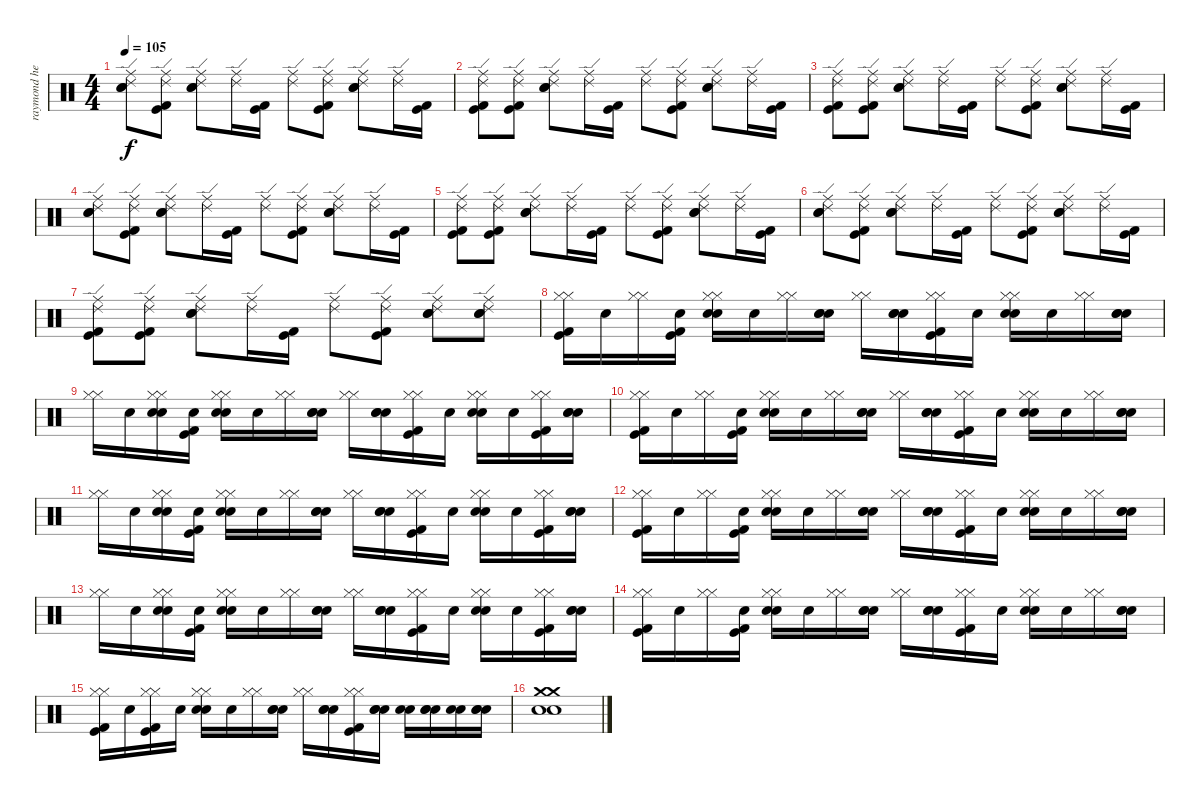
\track ("raymond herrea" "raymond he") {instrument percussion}
\staff {score}
\articulation defaults
\ts (4 4)
\tempo 105
\clef neutral
\ks c
("Ride (middle)" "Ride (edge) 2" "Snare (hit)" "Snare (hit)").8{dy f} ("Ride (middle)" "Ride (edge) 2" "Kick (hit)" "Kick (hit) 2").8 ("Ride (middle)" "Ride (edge) 2" "Snare (hit) 2" "Electric Snare (hit)").8 ("Ride (middle)" "Ride (edge) 2").16 ("Kick (hit)" "Kick (hit) 2").16 ("Ride (middle)" "Ride (edge) 2").8 ("Ride (middle)" "Ride (edge) 2" "Kick (hit)" "Kick (hit) 2").8 ("Ride (middle)" "Ride (edge) 2" "Snare (hit) 2" "Electric Snare (hit)").8 ("Ride (middle)" "Ride (edge) 2").16 ("Kick (hit)" "Kick (hit) 2").16 |
("Ride (middle)" "Ride (edge) 2" "Kick (hit)" "Kick (hit) 2").8 ("Ride (middle)" "Ride (edge) 2" "Kick (hit)" "Kick (hit) 2").8 ("Ride (middle)" "Ride (edge) 2" "Snare (hit) 2" "Electric Snare (hit)").8 ("Ride (middle)" "Ride (edge) 2").16 ("Kick (hit)" "Kick (hit) 2").16 ("Ride (middle)" "Ride (edge) 2").8 ("Ride (middle)" "Ride (edge) 2" "Kick (hit)" "Kick (hit) 2").8 ("Ride (middle)" "Ride (edge) 2" "Snare (hit) 2" "Electric Snare (hit)").8 ("Ride (middle)" "Ride (edge) 2").16 ("Kick (hit)" "Kick (hit) 2").16 |
("Ride (middle)" "Ride (edge) 2" "Kick (hit)" "Kick (hit) 2").8 ("Ride (middle)" "Ride (edge) 2" "Kick (hit)" "Kick (hit) 2").8 ("Ride (middle)" "Ride (edge) 2" "Snare (hit) 2" "Electric Snare (hit)").8 ("Ride (middle)" "Ride (edge) 2").16 ("Kick (hit)" "Kick (hit) 2").16 ("Ride (middle)" "Ride (edge) 2").8 ("Ride (middle)" "Ride (edge) 2" "Kick (hit)" "Kick (hit) 2").8 ("Ride (middle)" "Ride (edge) 2" "Snare (hit) 2" "Electric Snare (hit)").8 ("Ride (middle)" "Ride (edge) 2").16 ("Kick (hit)" "Kick (hit) 2").16 |
("Ride (middle)" "Ride (edge) 2" "Snare (hit)" "Snare (hit)").8 ("Ride (middle)" "Ride (edge) 2" "Kick (hit)" "Kick (hit) 2").8 ("Ride (middle)" "Ride (edge) 2" "Snare (hit) 2" "Electric Snare (hit)").8 ("Ride (middle)" "Ride (edge) 2").16 ("Kick (hit)" "Kick (hit) 2").16 ("Ride (middle)" "Ride (edge) 2").8 ("Ride (middle)" "Ride (edge) 2" "Kick (hit)" "Kick (hit) 2").8 ("Ride (middle)" "Ride (edge) 2" "Snare (hit) 2" "Electric Snare (hit)").8 ("Ride (middle)" "Ride (edge) 2").16 ("Kick (hit)" "Kick (hit) 2").16 |
("Ride (middle)" "Ride (edge) 2" "Kick (hit)" "Kick (hit) 2").8 ("Ride (middle)" "Ride (edge) 2" "Kick (hit)" "Kick (hit) 2").8 ("Ride (middle)" "Ride (edge) 2" "Snare (hit) 2" "Electric Snare (hit)").8 ("Ride (middle)" "Ride (edge) 2").16 ("Kick (hit)" "Kick (hit) 2").16 ("Ride (middle)" "Ride (edge) 2").8 ("Ride (middle)" "Ride (edge) 2" "Kick (hit)" "Kick (hit) 2").8 ("Ride (middle)" "Ride (edge) 2" "Snare (hit) 2" "Electric Snare (hit)").8 ("Ride (middle)" "Ride (edge) 2").16 ("Kick (hit)" "Kick (hit) 2").16 |
("Ride (middle)" "Ride (edge) 2" "Snare (hit)" "Snare (hit)").8 ("Ride (middle)" "Ride (edge) 2" "Kick (hit)" "Kick (hit) 2").8 ("Ride (middle)" "Ride (edge) 2" "Snare (hit) 2" "Electric Snare (hit)").8 ("Ride (middle)" "Ride (edge) 2").16 ("Kick (hit)" "Kick (hit) 2").16 ("Ride (middle)" "Ride (edge) 2").8 ("Ride (middle)" "Ride (edge) 2" "Kick (hit)" "Kick (hit) 2").8 ("Ride (middle)" "Ride (edge) 2" "Snare (hit) 2" "Electric Snare (hit)").8 ("Ride (middle)" "Ride (edge) 2").16 ("Kick (hit)" "Kick (hit) 2").16 |
("Ride (middle)" "Ride (edge) 2" "Kick (hit)" "Kick (hit) 2").8 ("Ride (middle)" "Ride (edge) 2" "Kick (hit)" "Kick (hit) 2").8 ("Ride (middle)" "Ride (edge) 2" "Snare (hit) 2" "Electric Snare (hit)").8 ("Ride (middle)" "Ride (edge) 2").16 ("Kick (hit)" "Kick (hit) 2").16 ("Ride (middle)" "Ride (edge) 2").8 ("Ride (middle)" "Ride (edge) 2" "Kick (hit)" "Kick (hit) 2").8 ("Ride (middle)" "Ride (edge) 2" "Snare (hit) 2" "Electric Snare (hit)").8 ("Ride (middle)" "Ride (edge) 2" "Snare (hit) 2" "Electric Snare (hit)").8 |
("Hi-Hat (closed)" "Hi-Hat (closed)" "Kick (hit)" "Kick (hit) 2").16 "Snare (hit)".16 ("Hi-Hat (closed)" "Hi-Hat (closed)").16 ("Snare (hit)" "Kick (hit)" "Kick (hit) 2").16 ("Hi-Hat (closed)" "Hi-Hat (closed)" "Snare (hit) 2" "Electric Snare (hit)").16 "Snare (hit)".16 ("Hi-Hat (closed)" "Hi-Hat (closed)").16 ("Snare (hit)" "Snare (hit) 2" "Electric Snare (hit)").16 ("Hi-Hat (closed)" "Hi-Hat (closed)").16 ("Snare (hit)" "Snare (hit) 2" "Electric Snare (hit)").16 ("Hi-Hat (closed)" "Hi-Hat (closed)" "Kick (hit)" "Kick (hit) 2").16 "Snare (hit)".16 ("Hi-Hat (closed)" "Hi-Hat (closed)" "Snare (hit) 2" "Electric Snare (hit)").16 "Snare (hit)".16 ("Hi-Hat (closed)" "Hi-Hat (closed)").16 ("Snare (hit)" "Snare (hit) 2" "Electric Snare (hit)").16 |
("Hi-Hat (closed)" "Hi-Hat (closed)").16 "Snare (hit)".16 ("Hi-Hat (closed)" "Hi-Hat (closed)" "Electric Snare (hit)" "Snare (hit) 2").16 ("Snare (hit)" "Kick (hit)" "Kick (hit) 2").16 ("Hi-Hat (closed)" "Hi-Hat (closed)" "Snare (hit) 2" "Electric Snare (hit)").16 "Snare (hit)".16 ("Hi-Hat (closed)" "Hi-Hat (closed)").16 ("Snare (hit)" "Snare (hit) 2" "Electric Snare (hit)").16 ("Hi-Hat (closed)" "Hi-Hat (closed)").16 ("Snare (hit)" "Snare (hit) 2" "Electric Snare (hit)").16 ("Hi-Hat (closed)" "Hi-Hat (closed)" "Kick (hit)" "Kick (hit) 2").16 "Snare (hit)".16 ("Hi-Hat (closed)" "Hi-Hat (closed)" "Snare (hit) 2" "Electric Snare (hit)").16 "Snare (hit)".16 ("Hi-Hat (closed)" "Hi-Hat (closed)" "Kick (hit)" "Kick (hit) 2").16 ("Snare (hit)" "Snare (hit) 2" "Electric Snare (hit)").16 |
("Hi-Hat (closed)" "Hi-Hat (closed)" "Kick (hit)" "Kick (hit) 2").16 "Snare (hit)".16 ("Hi-Hat (closed)" "Hi-Hat (closed)").16 ("Snare (hit)" "Kick (hit)" "Kick (hit) 2").16 ("Hi-Hat (closed)" "Hi-Hat (closed)" "Snare (hit) 2" "Electric Snare (hit)").16 "Snare (hit)".16 ("Hi-Hat (closed)" "Hi-Hat (closed)").16 ("Snare (hit)" "Snare (hit) 2" "Electric Snare (hit)").16 ("Hi-Hat (closed)" "Hi-Hat (closed)").16 ("Snare (hit)" "Snare (hit) 2" "Electric Snare (hit)").16 ("Hi-Hat (closed)" "Hi-Hat (closed)" "Kick (hit)" "Kick (hit) 2").16 "Snare (hit)".16 ("Hi-Hat (closed)" "Hi-Hat (closed)" "Snare (hit) 2" "Electric Snare (hit)").16 "Snare (hit)".16 ("Hi-Hat (closed)" "Hi-Hat (closed)").16 ("Snare (hit)" "Snare (hit) 2" "Electric Snare (hit)").16 |
("Hi-Hat (closed)" "Hi-Hat (closed)").16 "Snare (hit)".16 ("Hi-Hat (closed)" "Hi-Hat (closed)" "Electric Snare (hit)" "Snare (hit) 2").16 ("Snare (hit)" "Kick (hit)" "Kick (hit) 2").16 ("Hi-Hat (closed)" "Hi-Hat (closed)" "Snare (hit) 2" "Electric Snare (hit)").16 "Snare (hit)".16 ("Hi-Hat (closed)" "Hi-Hat (closed)").16 ("Snare (hit)" "Snare (hit) 2" "Electric Snare (hit)").16 ("Hi-Hat (closed)" "Hi-Hat (closed)").16 ("Snare (hit)" "Snare (hit) 2" "Electric Snare (hit)").16 ("Hi-Hat (closed)" "Hi-Hat (closed)" "Kick (hit)" "Kick (hit) 2").16 "Snare (hit)".16 ("Hi-Hat (closed)" "Hi-Hat (closed)" "Snare (hit) 2" "Electric Snare (hit)").16 "Snare (hit)".16 ("Hi-Hat (closed)" "Hi-Hat (closed)" "Kick (hit)" "Kick (hit) 2").16 ("Snare (hit)" "Snare (hit) 2" "Electric Snare (hit)").16 |
("Hi-Hat (closed)" "Hi-Hat (closed)" "Kick (hit)" "Kick (hit) 2").16 "Snare (hit)".16 ("Hi-Hat (closed)" "Hi-Hat (closed)").16 ("Snare (hit)" "Kick (hit)" "Kick (hit) 2").16 ("Hi-Hat (closed)" "Hi-Hat (closed)" "Snare (hit) 2" "Electric Snare (hit)").16 "Snare (hit)".16 ("Hi-Hat (closed)" "Hi-Hat (closed)").16 ("Snare (hit)" "Snare (hit) 2" "Electric Snare (hit)").16 ("Hi-Hat (closed)" "Hi-Hat (closed)").16 ("Snare (hit)" "Snare (hit) 2" "Electric Snare (hit)").16 ("Hi-Hat (closed)" "Hi-Hat (closed)" "Kick (hit)" "Kick (hit) 2").16 "Snare (hit)".16 ("Hi-Hat (closed)" "Hi-Hat (closed)" "Snare (hit) 2" "Electric Snare (hit)").16 "Snare (hit)".16 ("Hi-Hat (closed)" "Hi-Hat (closed)").16 ("Snare (hit)" "Snare (hit) 2" "Electric Snare (hit)").16 |
("Hi-Hat (closed)" "Hi-Hat (closed)").16 "Snare (hit)".16 ("Hi-Hat (closed)" "Hi-Hat (closed)" "Electric Snare (hit)" "Snare (hit) 2").16 ("Snare (hit)" "Kick (hit)" "Kick (hit) 2").16 ("Hi-Hat (closed)" "Hi-Hat (closed)" "Snare (hit) 2" "Electric Snare (hit)").16 "Snare (hit)".16 ("Hi-Hat (closed)" "Hi-Hat (closed)").16 ("Snare (hit)" "Snare (hit) 2" "Electric Snare (hit)").16 ("Hi-Hat (closed)" "Hi-Hat (closed)").16 ("Snare (hit)" "Snare (hit) 2" "Electric Snare (hit)").16 ("Hi-Hat (closed)" "Hi-Hat (closed)" "Kick (hit)" "Kick (hit) 2").16 "Snare (hit)".16 ("Hi-Hat (closed)" "Hi-Hat (closed)" "Snare (hit) 2" "Electric Snare (hit)").16 "Snare (hit)".16 ("Hi-Hat (closed)" "Hi-Hat (closed)" "Kick (hit)" "Kick (hit) 2").16 ("Snare (hit)" "Snare (hit) 2" "Electric Snare (hit)").16 |
("Hi-Hat (closed)" "Hi-Hat (closed)" "Kick (hit)" "Kick (hit) 2").16 "Snare (hit)".16 ("Hi-Hat (closed)" "Hi-Hat (closed)").16 ("Snare (hit)" "Kick (hit)" "Kick (hit) 2").16 ("Hi-Hat (closed)" "Hi-Hat (closed)" "Snare (hit) 2" "Electric Snare (hit)").16 "Snare (hit)".16 ("Hi-Hat (closed)" "Hi-Hat (closed)").16 ("Snare (hit)" "Snare (hit) 2" "Electric Snare (hit)").16 ("Hi-Hat (closed)" "Hi-Hat (closed)").16 ("Snare (hit)" "Snare (hit) 2" "Electric Snare (hit)").16 ("Hi-Hat (closed)" "Hi-Hat (closed)" "Kick (hit)" "Kick (hit) 2").16 "Snare (hit)".16 ("Hi-Hat (closed)" "Hi-Hat (closed)" "Snare (hit) 2" "Electric Snare (hit)").16 "Snare (hit)".16 ("Hi-Hat (closed)" "Hi-Hat (closed)").16 ("Snare (hit)" "Snare (hit) 2" "Electric Snare (hit)").16 |
("Hi-Hat (closed)" "Hi-Hat (closed)" "Kick (hit)" "Kick (hit) 2").16 "Snare (hit)".16 ("Hi-Hat (closed)" "Hi-Hat (closed)" "Kick (hit)" "Kick (hit) 2").16 "Snare (hit)".16 ("Hi-Hat (closed)" "Hi-Hat (closed)" "Snare (hit) 2" "Electric Snare (hit)").16 "Snare (hit)".16 ("Hi-Hat (closed)" "Hi-Hat (closed)").16 ("Snare (hit)" "Snare (hit) 2" "Electric Snare (hit)").16 ("Hi-Hat (closed)" "Hi-Hat (closed)").16 ("Snare (hit)" "Snare (hit) 2" "Electric Snare (hit)").16 ("Hi-Hat (closed)" "Hi-Hat (closed)" "Kick (hit)" "Kick (hit) 2").16 ("Snare (hit)" "Snare (hit) 2" "Electric Snare (hit)").16 ("Snare (hit) 2" "Electric Snare (hit)").16 ("Snare (hit)" "Snare (hit) 2" "Electric Snare (hit)").16 ("Snare (hit) 2" "Electric Snare (hit)").16 ("Snare (hit)" "Snare (hit) 2" "Electric Snare (hit)").16 |
("Crash medium (hit)" "Crash medium (hit)" "Electric Snare (hit)" "Snare (hit) 2").1
